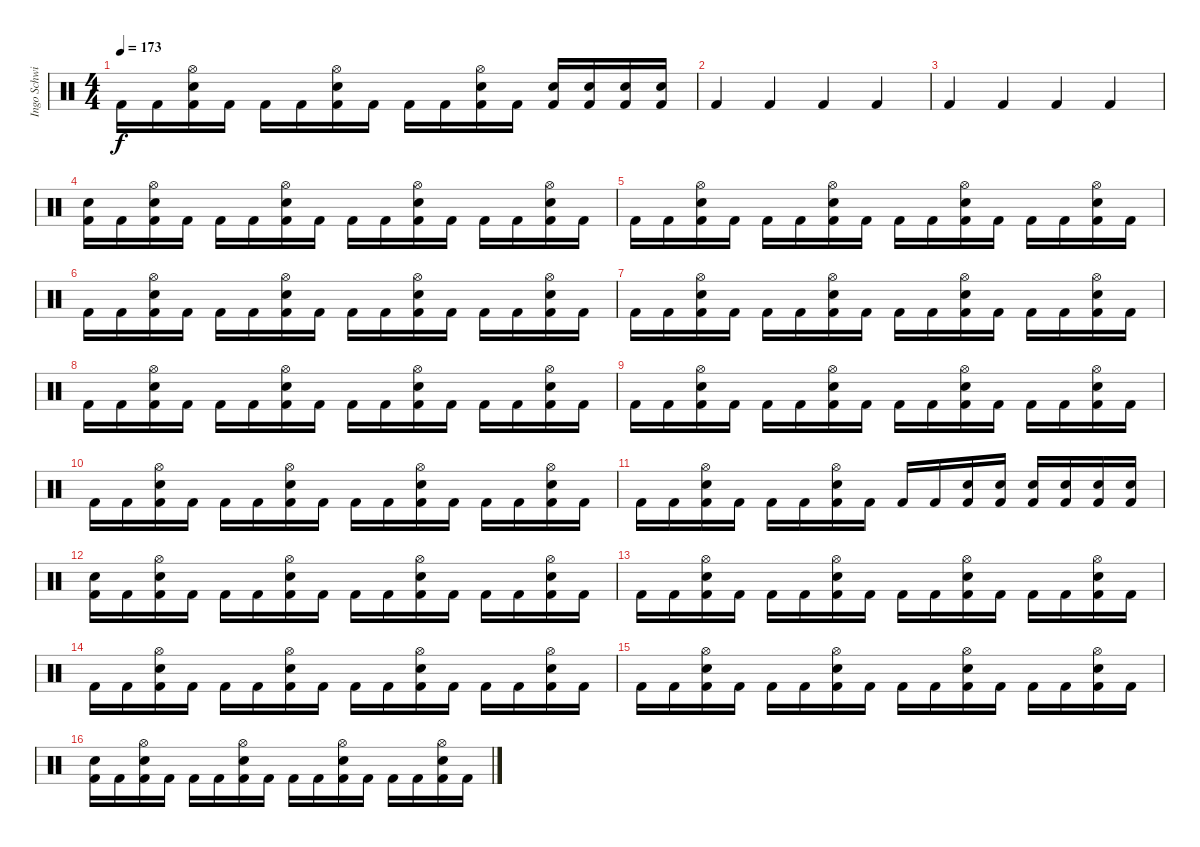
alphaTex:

\track ("Ingo Schwichtenberg" "Ingo Schwi") {instrument percussion}
\staff {score}
\articulation defaults
\ts (4 4)
\tempo 173
\clef neutral
\ks c "Kick (hit) 2".16{dy f} "Kick (hit) 2".16
("Kick (hit) 2" "Snare (hit) 2" "Hi-Hat (open)").16 "Kick (hit) 2".16 "Kick (hit) 2".16 "Kick (hit) 2".16 ("Kick (hit) 2" "Snare (hit) 2" "Hi-Hat (open)").16 "Kick (hit) 2".16 "Kick (hit) 2".16 "Kick (hit) 2".16 ("Kick (hit) 2" "Snare (hit) 2" "Hi-Hat (open)").16 "Kick (hit) 2".16 ("Kick (hit) 2" "Snare (hit) 2").16 ("Kick (hit) 2" "Snare (hit) 2").16 ("Kick (hit) 2" "Snare (hit) 2").16 ("Kick (hit) 2" "Snare (hit) 2").16 |
"Kick (hit) 2".4 "Kick (hit) 2".4 "Kick (hit) 2".4 "Kick (hit) 2".4 |
"Kick (hit) 2".4 "Kick (hit) 2".4 "Kick (hit) 2".4 "Kick (hit) 2".4 |
("Kick (hit) 2" "Snare (hit) 2").16 "Kick (hit) 2".16 ("Kick (hit) 2" "Snare (hit) 2" "Hi-Hat (open)").16 "Kick (hit) 2".16 "Kick (hit) 2".16 "Kick (hit) 2".16 ("Kick (hit) 2" "Snare (hit) 2" "Hi-Hat (open)").16 "Kick (hit) 2".16 "Kick (hit) 2".16 "Kick (hit) 2".16 ("Kick (hit) 2" "Snare (hit) 2" "Hi-Hat (open)").16 "Kick (hit) 2".16 "Kick (hit) 2".16 "Kick (hit) 2".16 ("Kick (hit) 2" "Snare (hit) 2" "Hi-Hat (open)").16 "Kick (hit) 2".16 |
"Kick (hit) 2".16 "Kick (hit) 2".16 ("Kick (hit) 2" "Snare (hit) 2" "Hi-Hat (open)").16 "Kick (hit) 2".16 "Kick (hit) 2".16 "Kick (hit) 2".16 ("Kick (hit) 2" "Snare (hit) 2" "Hi-Hat (open)").16 "Kick (hit) 2".16 "Kick (hit) 2".16 "Kick (hit) 2".16 ("Kick (hit) 2" "Snare (hit) 2" "Hi-Hat (open)").16 "Kick (hit) 2".16 "Kick (hit) 2".16 "Kick (hit) 2".16 ("Kick (hit) 2" "Snare (hit) 2" "Hi-Hat (open)").16 "Kick (hit) 2".16 |
"Kick (hit) 2".16 "Kick (hit) 2".16 ("Kick (hit) 2" "Snare (hit) 2" "Hi-Hat (open)").16 "Kick (hit) 2".16 "Kick (hit) 2".16 "Kick (hit) 2".16 ("Kick (hit) 2" "Snare (hit) 2" "Hi-Hat (open)").16 "Kick (hit) 2".16 "Kick (hit) 2".16 "Kick (hit) 2".16 ("Kick (hit) 2" "Snare (hit) 2" "Hi-Hat (open)").16 "Kick (hit) 2".16 "Kick (hit) 2".16 "Kick (hit) 2".16 ("Kick (hit) 2" "Snare (hit) 2" "Hi-Hat (open)").16 "Kick (hit) 2".16 |
"Kick (hit) 2".16 "Kick (hit) 2".16 ("Kick (hit) 2" "Snare (hit) 2" "Hi-Hat (open)").16 "Kick (hit) 2".16 "Kick (hit) 2".16 "Kick (hit) 2".16 ("Kick (hit) 2" "Snare (hit) 2" "Hi-Hat (open)").16 "Kick (hit) 2".16 "Kick (hit) 2".16 "Kick (hit) 2".16 ("Kick (hit) 2" "Snare (hit) 2" "Hi-Hat (open)").16 "Kick (hit) 2".16 "Kick (hit) 2".16 "Kick (hit) 2".16 ("Kick (hit) 2" "Snare (hit) 2" "Hi-Hat (open)").16 "Kick (hit) 2".16 |
"Kick (hit) 2".16 "Kick (hit) 2".16 ("Kick (hit) 2" "Snare (hit) 2" "Hi-Hat (open)").16 "Kick (hit) 2".16 "Kick (hit) 2".16 "Kick (hit) 2".16 ("Kick (hit) 2" "Snare (hit) 2" "Hi-Hat (open)").16 "Kick (hit) 2".16 "Kick (hit) 2".16 "Kick (hit) 2".16 ("Kick (hit) 2" "Snare (hit) 2" "Hi-Hat (open)").16 "Kick (hit) 2".16 "Kick (hit) 2".16 "Kick (hit) 2".16 ("Kick (hit) 2" "Snare (hit) 2" "Hi-Hat (open)").16 "Kick (hit) 2".16 |
"Kick (hit) 2".16 "Kick (hit) 2".16 ("Kick (hit) 2" "Snare (hit) 2" "Hi-Hat (open)").16 "Kick (hit) 2".16 "Kick (hit) 2".16 "Kick (hit) 2".16 ("Kick (hit) 2" "Snare (hit) 2" "Hi-Hat (open)").16 "Kick (hit) 2".16 "Kick (hit) 2".16 "Kick (hit) 2".16 ("Kick (hit) 2" "Snare (hit) 2" "Hi-Hat (open)").16 "Kick (hit) 2".16 "Kick (hit) 2".16 "Kick (hit) 2".16 ("Kick (hit) 2" "Snare (hit) 2" "Hi-Hat (open)").16 "Kick (hit) 2".16 |
"Kick (hit) 2".16 "Kick (hit) 2".16 ("Kick (hit) 2" "Snare (hit) 2" "Hi-Hat (open)").16 "Kick (hit) 2".16 "Kick (hit) 2".16 "Kick (hit) 2".16 ("Kick (hit) 2" "Snare (hit) 2" "Hi-Hat (open)").16 "Kick (hit) 2".16 "Kick (hit) 2".16 "Kick (hit) 2".16 ("Kick (hit) 2" "Snare (hit) 2" "Hi-Hat (open)").16 "Kick (hit) 2".16 "Kick (hit) 2".16 "Kick (hit) 2".16 ("Kick (hit) 2" "Snare (hit) 2" "Hi-Hat (open)").16 "Kick (hit) 2".16 |
"Kick (hit) 2".16 "Kick (hit) 2".16 ("Kick (hit) 2" "Snare (hit) 2" "Hi-Hat (open)").16 "Kick (hit) 2".16 "Kick (hit) 2".16 "Kick (hit) 2".16 ("Kick (hit) 2" "Snare (hit) 2" "Hi-Hat (open)").16 "Kick (hit) 2".16 "Kick (hit) 2".16 "Kick (hit) 2".16 ("Kick (hit) 2" "Snare (hit) 2").16 ("Kick (hit) 2" "Snare (hit) 2").16 ("Kick (hit) 2" "Snare (hit) 2").16 ("Kick (hit) 2" "Snare (hit) 2").16 ("Kick (hit) 2" "Snare (hit) 2").16 ("Kick (hit) 2" "Snare (hit) 2").16 |
("Kick (hit) 2" "Snare (hit) 2").16 "Kick (hit) 2".16 ("Kick (hit) 2" "Snare (hit) 2" "Hi-Hat (open)").16 "Kick (hit) 2".16 "Kick (hit) 2".16 "Kick (hit) 2".16 ("Kick (hit) 2" "Snare (hit) 2" "Hi-Hat (open)").16 "Kick (hit) 2".16 "Kick (hit) 2".16 "Kick (hit) 2".16 ("Kick (hit) 2" "Snare (hit) 2" "Hi-Hat (open)").16 "Kick (hit) 2".16 "Kick (hit) 2".16 "Kick (hit) 2".16 ("Kick (hit) 2" "Snare (hit) 2" "Hi-Hat (open)").16 "Kick (hit) 2".16 |
"Kick (hit) 2".16 "Kick (hit) 2".16 ("Kick (hit) 2" "Snare (hit) 2" "Hi-Hat (open)").16 "Kick (hit) 2".16 "Kick (hit) 2".16 "Kick (hit) 2".16 ("Kick (hit) 2" "Snare (hit) 2" "Hi-Hat (open)").16 "Kick (hit) 2".16 "Kick (hit) 2".16 "Kick (hit) 2".16 ("Kick (hit) 2" "Snare (hit) 2" "Hi-Hat (open)").16 "Kick (hit) 2".16 "Kick (hit) 2".16 "Kick (hit) 2".16 ("Kick (hit) 2" "Snare (hit) 2" "Hi-Hat (open)").16 "Kick (hit) 2".16 |
"Kick (hit) 2".16 "Kick (hit) 2".16 ("Kick (hit) 2" "Snare (hit) 2" "Hi-Hat (open)").16 "Kick (hit) 2".16 "Kick (hit) 2".16 "Kick (hit) 2".16 ("Kick (hit) 2" "Snare (hit) 2" "Hi-Hat (open)").16 "Kick (hit) 2".16 "Kick (hit) 2".16 "Kick (hit) 2".16 ("Kick (hit) 2" "Snare (hit) 2" "Hi-Hat (open)").16 "Kick (hit) 2".16 "Kick (hit) 2".16 "Kick (hit) 2".16 ("Kick (hit) 2" "Snare (hit) 2" "Hi-Hat (open)").16 "Kick (hit) 2".16 |
"Kick (hit) 2".16 "Kick (hit) 2".16 ("Kick (hit) 2" "Snare (hit) 2" "Hi-Hat (open)").16 "Kick (hit) 2".16 "Kick (hit) 2".16 "Kick (hit) 2".16 ("Kick (hit) 2" "Snare (hit) 2" "Hi-Hat (open)").16 "Kick (hit) 2".16 "Kick (hit) 2".16 "Kick (hit) 2".16 ("Kick (hit) 2" "Snare (hit) 2" "Hi-Hat (open)").16 "Kick (hit) 2".16 "Kick (hit) 2".16 "Kick (hit) 2".16 ("Kick (hit) 2" "Snare (hit) 2" "Hi-Hat (open)").16 "Kick (hit) 2".16 |
("Kick (hit) 2" "Snare (hit) 2").16 "Kick (hit) 2".16 ("Kick (hit) 2" "Snare (hit) 2" "Hi-Hat (open)").16 "Kick (hit) 2".16 "Kick (hit) 2".16 "Kick (hit) 2".16 ("Kick (hit) 2" "Snare (hit) 2" "Hi-Hat (open)").16 "Kick (hit) 2".16 "Kick (hit) 2".16 "Kick (hit) 2".16 ("Kick (hit) 2" "Snare (hit) 2" "Hi-Hat (open)").16 "Kick (hit) 2".16 "Kick (hit) 2".16 "Kick (hit) 2".16 ("Kick (hit) 2" "Snare (hit) 2" "Hi-Hat (open)").16 "Kick (hit) 2".16
